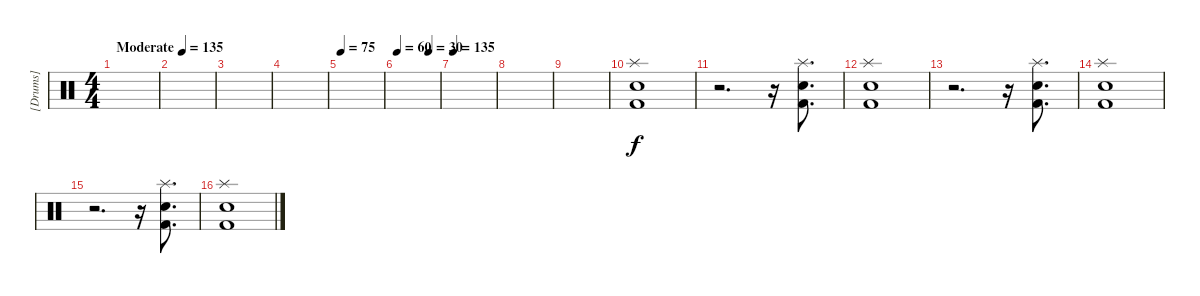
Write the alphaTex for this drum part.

\track ("[Drums]" "[Drums]") {instrument percussion}
\staff {score}
\articulation defaults
\ts (4 4)
\tempo (135 "Moderate")
\clef neutral
\ks c
|
|
|
|
\tempo 75
|
\tempo 60
\tempo (30 0.75)
|
\tempo 135
|
|
|
("Splash (hit)" "Snare (hit) 2" "Kick (hit) 2").1 |
r.2{d} r.16 ("Splash (hit)" "Snare (hit) 2" "Kick (hit) 2").8{d} |
("Splash (hit)" "Snare (hit) 2" "Kick (hit) 2").1 |
r.2{d} r.16 ("Splash (hit)" "Snare (hit) 2" "Kick (hit) 2").8{d} |
("Splash (hit)" "Snare (hit) 2" "Kick (hit) 2").1 |
r.2{d} r.16 ("Splash (hit)" "Snare (hit) 2" "Kick (hit) 2").8{d} |
("Splash (hit)" "Snare (hit) 2" "Kick (hit) 2").1
